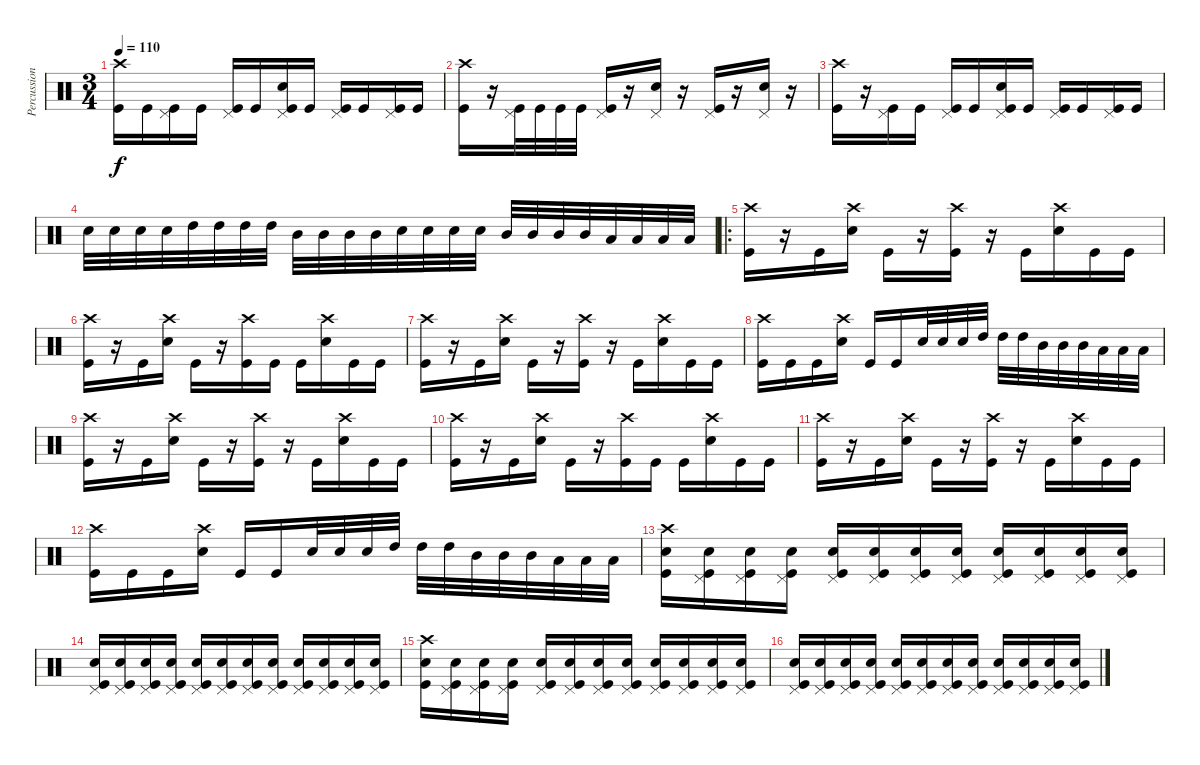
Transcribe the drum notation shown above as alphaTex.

\track ("Percussion" "Percussion") {instrument percussion}
\staff {score}
\articulation defaults
\ts (3 4)
\tempo 110
\clef neutral
\ks c
("Crash high (hit)" "Kick (hit)").16{dy f} "Kick (hit)".16 ("Pedal Hi-Hat (hit)" "Kick (hit)").16 "Kick (hit)".16 ("Pedal Hi-Hat (hit)" "Kick (hit)").16 "Kick (hit)".16 ("Electric Snare (hit)" "Pedal Hi-Hat (hit)" "Kick (hit)").16 "Kick (hit)".16 ("Pedal Hi-Hat (hit)" "Kick (hit)").16 "Kick (hit)".16 ("Pedal Hi-Hat (hit)" "Kick (hit)").16 "Kick (hit)".16 |
("Crash high (hit)" "Kick (hit)").16 r.16 ("Pedal Hi-Hat (hit)" "Kick (hit)").32 "Kick (hit)".32 "Kick (hit)".32 "Kick (hit)".32 ("Pedal Hi-Hat (hit)" "Kick (hit)").16 r.16 ("Pedal Hi-Hat (hit)" "Electric Snare (hit)").16 r.16 ("Pedal Hi-Hat (hit)" "Kick (hit)").16 r.16 ("Pedal Hi-Hat (hit)" "Electric Snare (hit)").16 r.16 |
("Crash high (hit)" "Kick (hit)").16 r.16 ("Pedal Hi-Hat (hit)" "Kick (hit)").16 "Kick (hit)".16 ("Pedal Hi-Hat (hit)" "Kick (hit)").16 "Kick (hit)".16 ("Electric Snare (hit)" "Pedal Hi-Hat (hit)" "Kick (hit)").16 "Kick (hit)".16 ("Pedal Hi-Hat (hit)" "Kick (hit)").16 "Kick (hit)".16 ("Pedal Hi-Hat (hit)" "Kick (hit)").16 "Kick (hit)".16 |
"Electric Snare (hit)".32 "Electric Snare (hit)".32 "Electric Snare (hit)".32 "Electric Snare (hit)".32 "High Tom (hit)".32 "High Tom (hit)".32 "High Tom (hit)".32 "High Tom (hit)".32 "Mid Tom (hit)".32 "Mid Tom (hit)".32 "Mid Tom (hit)".32 "Mid Tom (hit)".32 "Electric Snare (hit)".32 "Electric Snare (hit)".32 "Electric Snare (hit)".32 "Electric Snare (hit)".32 "Mid Tom (hit)".32 "Mid Tom (hit)".32 "Mid Tom (hit)".32 "Mid Tom (hit)".32 "Low Tom (hit)".32 "Low Tom (hit)".32 "Low Tom (hit)".32 "Low Tom (hit)".32 |
\ro
("Crash high (hit)" "Kick (hit)").16 r.16 "Kick (hit)".16 ("Crash high (hit)" "Electric Snare (hit)").16 "Kick (hit)".16 r.16 ("Crash high (hit)" "Kick (hit)").16 r.16 "Kick (hit)".16 ("Crash high (hit)" "Electric Snare (hit)").16 "Kick (hit)".16 "Kick (hit)".16 |
("Crash high (hit)" "Kick (hit)").16 r.16 "Kick (hit)".16 ("Crash high (hit)" "Electric Snare (hit)").16 "Kick (hit)".16 r.16 ("Crash high (hit)" "Kick (hit)").16 "Kick (hit)".16 "Kick (hit)".16 ("Crash high (hit)" "Electric Snare (hit)").16 "Kick (hit)".16 "Kick (hit)".16 |
("Crash high (hit)" "Kick (hit)").16 r.16 "Kick (hit)".16 ("Crash high (hit)" "Electric Snare (hit)").16 "Kick (hit)".16 r.16 ("Crash high (hit)" "Kick (hit)").16 r.16 "Kick (hit)".16 ("Crash high (hit)" "Electric Snare (hit)").16 "Kick (hit)".16 "Kick (hit)".16 |
("Crash high (hit)" "Kick (hit)").16 "Kick (hit)".16 "Kick (hit)".16 ("Crash high (hit)" "Electric Snare (hit)").16 "Kick (hit)".16 "Kick (hit)".16 "Electric Snare (hit)".32 "Electric Snare (hit)".32 "Electric Snare (hit)".32 "High Tom (hit)".32 "High Tom (hit)".32 "High Tom (hit)".32 "Mid Tom (hit)".32 "Mid Tom (hit)".32 "Mid Tom (hit)".32 "Low Tom (hit)".32 "Low Tom (hit)".32 "Low Tom (hit)".32 |
("Crash high (hit)" "Kick (hit)").16 r.16 "Kick (hit)".16 ("Crash high (hit)" "Electric Snare (hit)").16 "Kick (hit)".16 r.16 ("Crash high (hit)" "Kick (hit)").16 r.16 "Kick (hit)".16 ("Crash high (hit)" "Electric Snare (hit)").16 "Kick (hit)".16 "Kick (hit)".16 |
("Crash high (hit)" "Kick (hit)").16 r.16 "Kick (hit)".16 ("Crash high (hit)" "Electric Snare (hit)").16 "Kick (hit)".16 r.16 ("Crash high (hit)" "Kick (hit)").16 "Kick (hit)".16 "Kick (hit)".16 ("Crash high (hit)" "Electric Snare (hit)").16 "Kick (hit)".16 "Kick (hit)".16 |
("Crash high (hit)" "Kick (hit)").16 r.16 "Kick (hit)".16 ("Crash high (hit)" "Electric Snare (hit)").16 "Kick (hit)".16 r.16 ("Crash high (hit)" "Kick (hit)").16 r.16 "Kick (hit)".16 ("Crash high (hit)" "Electric Snare (hit)").16 "Kick (hit)".16 "Kick (hit)".16 |
("Crash high (hit)" "Kick (hit)").16 "Kick (hit)".16 "Kick (hit)".16 ("Crash high (hit)" "Electric Snare (hit)").16 "Kick (hit)".16 "Kick (hit)".16 "Electric Snare (hit)".32 "Electric Snare (hit)".32 "Electric Snare (hit)".32 "High Tom (hit)".32 "High Tom (hit)".32 "High Tom (hit)".32 "Mid Tom (hit)".32 "Mid Tom (hit)".32 "Mid Tom (hit)".32 "Low Tom (hit)".32 "Low Tom (hit)".32 "Low Tom (hit)".32 |
("Crash high (hit)" "Electric Snare (hit)" "Kick (hit)").16 ("Pedal Hi-Hat (hit)" "Electric Snare (hit)" "Kick (hit)").16 ("Pedal Hi-Hat (hit)" "Electric Snare (hit)" "Kick (hit)").16 ("Pedal Hi-Hat (hit)" "Electric Snare (hit)" "Kick (hit)").16 ("Pedal Hi-Hat (hit)" "Electric Snare (hit)" "Kick (hit)").16 ("Pedal Hi-Hat (hit)" "Electric Snare (hit)" "Kick (hit)").16 ("Pedal Hi-Hat (hit)" "Electric Snare (hit)" "Kick (hit)").16 ("Pedal Hi-Hat (hit)" "Electric Snare (hit)" "Kick (hit)").16 ("Pedal Hi-Hat (hit)" "Electric Snare (hit)" "Kick (hit)").16 ("Pedal Hi-Hat (hit)" "Electric Snare (hit)" "Kick (hit)").16 ("Pedal Hi-Hat (hit)" "Electric Snare (hit)" "Kick (hit)").16 ("Pedal Hi-Hat (hit)" "Electric Snare (hit)" "Kick (hit)").16 |
("Pedal Hi-Hat (hit)" "Electric Snare (hit)" "Kick (hit)").16 ("Pedal Hi-Hat (hit)" "Electric Snare (hit)" "Kick (hit)").16 ("Pedal Hi-Hat (hit)" "Electric Snare (hit)" "Kick (hit)").16 ("Pedal Hi-Hat (hit)" "Electric Snare (hit)" "Kick (hit)").16 ("Pedal Hi-Hat (hit)" "Electric Snare (hit)" "Kick (hit)").16 ("Pedal Hi-Hat (hit)" "Electric Snare (hit)" "Kick (hit)").16 ("Pedal Hi-Hat (hit)" "Electric Snare (hit)" "Kick (hit)").16 ("Pedal Hi-Hat (hit)" "Electric Snare (hit)" "Kick (hit)").16 ("Pedal Hi-Hat (hit)" "Electric Snare (hit)" "Kick (hit)").16 ("Pedal Hi-Hat (hit)" "Electric Snare (hit)" "Kick (hit)").16 ("Pedal Hi-Hat (hit)" "Electric Snare (hit)" "Kick (hit)").16 ("Pedal Hi-Hat (hit)" "Electric Snare (hit)" "Kick (hit)").16 |
("Crash high (hit)" "Electric Snare (hit)" "Kick (hit)").16 ("Pedal Hi-Hat (hit)" "Electric Snare (hit)" "Kick (hit)").16 ("Pedal Hi-Hat (hit)" "Electric Snare (hit)" "Kick (hit)").16 ("Pedal Hi-Hat (hit)" "Electric Snare (hit)" "Kick (hit)").16 ("Pedal Hi-Hat (hit)" "Electric Snare (hit)" "Kick (hit)").16 ("Pedal Hi-Hat (hit)" "Electric Snare (hit)" "Kick (hit)").16 ("Pedal Hi-Hat (hit)" "Electric Snare (hit)" "Kick (hit)").16 ("Pedal Hi-Hat (hit)" "Electric Snare (hit)" "Kick (hit)").16 ("Pedal Hi-Hat (hit)" "Electric Snare (hit)" "Kick (hit)").16 ("Pedal Hi-Hat (hit)" "Electric Snare (hit)" "Kick (hit)").16 ("Pedal Hi-Hat (hit)" "Electric Snare (hit)" "Kick (hit)").16 ("Pedal Hi-Hat (hit)" "Electric Snare (hit)" "Kick (hit)").16 |
("Pedal Hi-Hat (hit)" "Electric Snare (hit)" "Kick (hit)").16 ("Pedal Hi-Hat (hit)" "Electric Snare (hit)" "Kick (hit)").16 ("Pedal Hi-Hat (hit)" "Electric Snare (hit)" "Kick (hit)").16 ("Pedal Hi-Hat (hit)" "Electric Snare (hit)" "Kick (hit)").16 ("Pedal Hi-Hat (hit)" "Electric Snare (hit)" "Kick (hit)").16 ("Pedal Hi-Hat (hit)" "Electric Snare (hit)" "Kick (hit)").16 ("Pedal Hi-Hat (hit)" "Electric Snare (hit)" "Kick (hit)").16 ("Pedal Hi-Hat (hit)" "Electric Snare (hit)" "Kick (hit)").16 ("Pedal Hi-Hat (hit)" "Electric Snare (hit)" "Kick (hit)").16 ("Pedal Hi-Hat (hit)" "Electric Snare (hit)" "Kick (hit)").16 ("Pedal Hi-Hat (hit)" "Electric Snare (hit)" "Kick (hit)").16 ("Pedal Hi-Hat (hit)" "Electric Snare (hit)" "Kick (hit)").16
